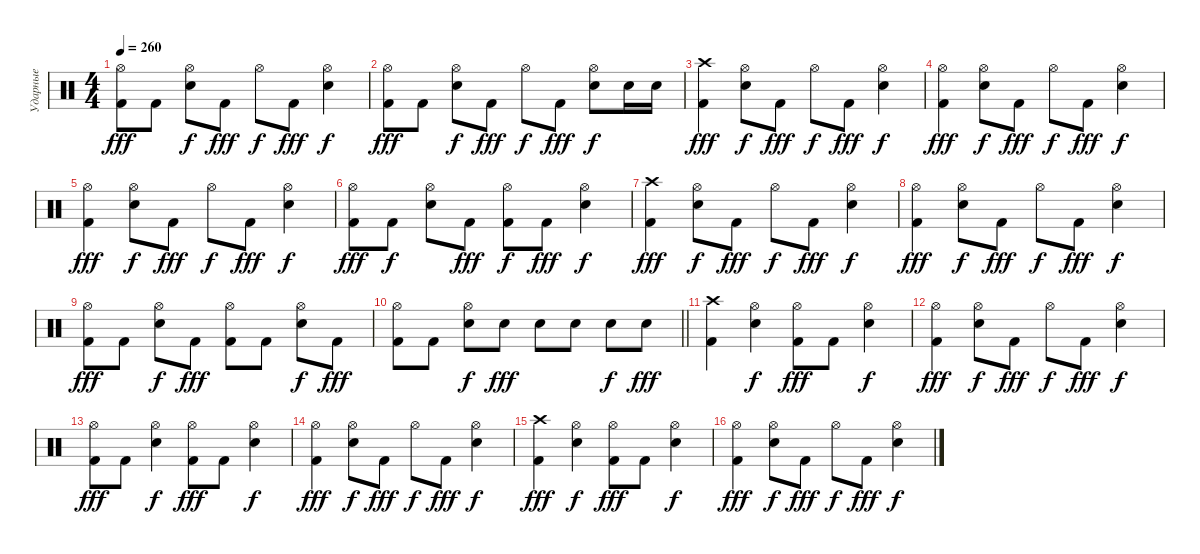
\track ("Ударные" "Ударные") {instrument percussion}
\staff {score}
\articulation defaults
\ts (4 4)
\tempo 260
\clef neutral
\ks c
("Kick (hit) 2" "Hi-Hat (open)").8{dy fff} "Kick (hit) 2".8 ("Snare (hit) 2" "Hi-Hat (open)").8{dy f} "Kick (hit) 2".8{dy fff} "Hi-Hat (open)".8{dy f} "Kick (hit) 2".8{dy fff} ("Snare (hit) 2" "Hi-Hat (open)").4{dy f} |
("Kick (hit) 2" "Hi-Hat (open)").8{dy fff} "Kick (hit) 2".8 ("Snare (hit) 2" "Hi-Hat (open)").8{dy f} "Kick (hit) 2".8{dy fff} "Hi-Hat (open)".8{dy f} "Kick (hit) 2".8{dy fff} ("Snare (hit) 2" "Hi-Hat (open)").8{dy f} "Snare (hit) 2".16 "Snare (hit) 2".16 |
("Kick (hit) 2" "Crash high (hit)").4{dy fff} ("Snare (hit) 2" "Hi-Hat (open)").8{dy f} "Kick (hit) 2".8{dy fff} "Hi-Hat (open)".8{dy f} "Kick (hit) 2".8{dy fff} ("Snare (hit) 2" "Hi-Hat (open)").4{dy f} |
("Kick (hit) 2" "Hi-Hat (open)").4{dy fff} ("Snare (hit) 2" "Hi-Hat (open)").8{dy f} "Kick (hit) 2".8{dy fff} "Hi-Hat (open)".8{dy f} "Kick (hit) 2".8{dy fff} ("Snare (hit) 2" "Hi-Hat (open)").4{dy f} |
("Kick (hit) 2" "Hi-Hat (open)").4{dy fff} ("Snare (hit) 2" "Hi-Hat (open)").8{dy f} "Kick (hit) 2".8{dy fff} "Hi-Hat (open)".8{dy f} "Kick (hit) 2".8{dy fff} ("Snare (hit) 2" "Hi-Hat (open)").4{dy f} |
("Kick (hit) 2" "Hi-Hat (open)").8{dy fff} "Kick (hit) 2".8{dy f} ("Snare (hit) 2" "Hi-Hat (open)").8 "Kick (hit) 2".8{dy fff} ("Kick (hit) 2" "Hi-Hat (open)").8{dy f} "Kick (hit) 2".8{dy fff} ("Snare (hit) 2" "Hi-Hat (open)").4{dy f} |
("Kick (hit) 2" "Crash high (hit)").4{dy fff} ("Snare (hit) 2" "Hi-Hat (open)").8{dy f} "Kick (hit) 2".8{dy fff} "Hi-Hat (open)".8{dy f} "Kick (hit) 2".8{dy fff} ("Snare (hit) 2" "Hi-Hat (open)").4{dy f} |
("Kick (hit) 2" "Hi-Hat (open)").4{dy fff} ("Snare (hit) 2" "Hi-Hat (open)").8{dy f} "Kick (hit) 2".8{dy fff} "Hi-Hat (open)".8{dy f} "Kick (hit) 2".8{dy fff} ("Snare (hit) 2" "Hi-Hat (open)").4{dy f} |
("Kick (hit) 2" "Hi-Hat (open)").8{dy fff} "Kick (hit) 2".8 ("Snare (hit) 2" "Hi-Hat (open)").8{dy f} "Kick (hit) 2".8{dy fff} ("Kick (hit) 2" "Hi-Hat (open)").8 "Kick (hit) 2".8 ("Snare (hit) 2" "Hi-Hat (open)").8{dy f} "Kick (hit) 2".8{dy fff} |
\barLineRight lightlight
("Kick (hit) 2" "Hi-Hat (open)").8 "Kick (hit) 2".8 ("Snare (hit) 2" "Hi-Hat (open)").8{dy f} "Electric Snare (hit)".8{dy fff} "Electric Snare (hit)".8 "Electric Snare (hit)".8 "Electric Snare (hit)".8{dy f} "Electric Snare (hit)".8{dy fff} |
("Kick (hit) 2" "Crash high (hit)").4 ("Snare (hit) 2" "Hi-Hat (open)").4{dy f} ("Kick (hit) 2" "Hi-Hat (open)").8{dy fff} "Kick (hit) 2".8 ("Snare (hit) 2" "Hi-Hat (open)").4{dy f} |
("Kick (hit) 2" "Hi-Hat (open)").4{dy fff} ("Snare (hit) 2" "Hi-Hat (open)").8{dy f} "Kick (hit) 2".8{dy fff} "Hi-Hat (open)".8{dy f} "Kick (hit) 2".8{dy fff} ("Snare (hit) 2" "Hi-Hat (open)").4{dy f} |
("Kick (hit) 2" "Hi-Hat (open)").8{dy fff} "Kick (hit) 2".8 ("Snare (hit) 2" "Hi-Hat (open)").4{dy f} ("Kick (hit) 2" "Hi-Hat (open)").8{dy fff} "Kick (hit) 2".8 ("Snare (hit) 2" "Hi-Hat (open)").4{dy f} |
("Kick (hit) 2" "Hi-Hat (open)").4{dy fff} ("Snare (hit) 2" "Hi-Hat (open)").8{dy f} "Kick (hit) 2".8{dy fff} "Hi-Hat (open)".8{dy f} "Kick (hit) 2".8{dy fff} ("Snare (hit) 2" "Hi-Hat (open)").4{dy f} |
("Kick (hit) 2" "Crash high (hit)").4{dy fff} ("Snare (hit) 2" "Hi-Hat (open)").4{dy f} ("Kick (hit) 2" "Hi-Hat (open)").8{dy fff} "Kick (hit) 2".8 ("Snare (hit) 2" "Hi-Hat (open)").4{dy f} |
("Kick (hit) 2" "Hi-Hat (open)").4{dy fff} ("Snare (hit) 2" "Hi-Hat (open)").8{dy f} "Kick (hit) 2".8{dy fff} "Hi-Hat (open)".8{dy f} "Kick (hit) 2".8{dy fff} ("Snare (hit) 2" "Hi-Hat (open)").4{dy f}
